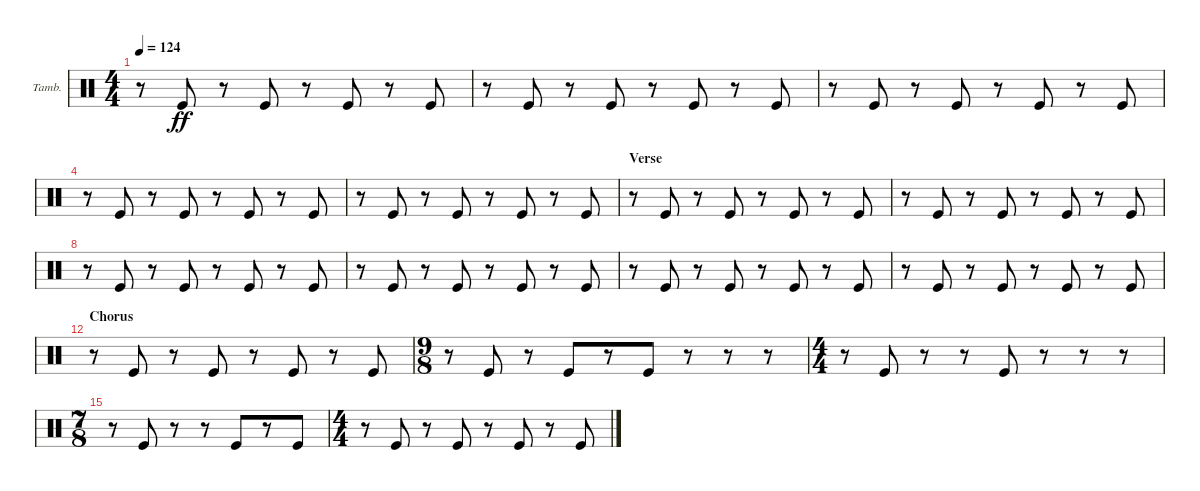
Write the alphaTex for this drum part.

\bracketExtendMode nobrackets
\firstSystemTrackNameOrientation horizontal
\otherSystemsTrackNameOrientation horizontal
\defaultBarNumberDisplay FirstOfSystem
\track ("Tambourine" "Tamb.") {instrument percussion}
\staff {score}
\articulation defaults
\ts (4 4)
\scale
0.405405
\tempo 124
\accidentals auto
\clef neutral
\ottava regular
\simile none
\scale
0.333333
\ks c
r.8{dy ff} "Kick (hit)".8 r.8 "Kick (hit)".8 r.8 "Kick (hit)".8 r.8 "Kick (hit)".8 |
\scale
0.36
\scale
0.333333 r.8 "Kick (hit)".8 r.8 "Kick (hit)".8 r.8 "Kick (hit)".8 r.8 "Kick (hit)".8 |
\scale
0.312
\scale
0.333333 r.8 "Kick (hit)".8 r.8 "Kick (hit)".8 r.8 "Kick (hit)".8 r.8 "Kick (hit)".8 |
\scale
0.328
\scale
0.333333 r.8 "Kick (hit)".8 r.8 "Kick (hit)".8 r.8 "Kick (hit)".8 r.8 "Kick (hit)".8 |
\scale
0.297297
\scale
0.333333 r.8 "Kick (hit)".8 r.8 "Kick (hit)".8 r.8 "Kick (hit)".8 r.8 "Kick (hit)".8 |
\section ("" "Verse")
\scale
0.297297
\scale
0.333333 r.8 "Kick (hit)".8 r.8 "Kick (hit)".8 r.8 "Kick (hit)".8 r.8 "Kick (hit)".8 |
\scale
0.405405
\scale
0.333333 r.8 "Kick (hit)".8 r.8 "Kick (hit)".8 r.8 "Kick (hit)".8 r.8 "Kick (hit)".8 |
\scale
0.371901
\scale
0.333333 r.8 "Kick (hit)".8 r.8 "Kick (hit)".8 r.8 "Kick (hit)".8 r.8 "Kick (hit)".8 |
\scale
0.355372
\scale
0.333333 r.8 "Kick (hit)".8 r.8 "Kick (hit)".8 r.8 "Kick (hit)".8 r.8 "Kick (hit)".8 |
\scale
0.272727
\scale
0.333333 r.8 "Kick (hit)".8 r.8 "Kick (hit)".8 r.8 "Kick (hit)".8 r.8 "Kick (hit)".8 |
\scale
0.271605
\scale
0.333333 r.8 "Kick (hit)".8 r.8 "Kick (hit)".8 r.8 "Kick (hit)".8 r.8 "Kick (hit)".8 |
\section ("" "Chorus")
\scale
0.271605
\scale
0.333333 r.8 "Kick (hit)".8 r.8 "Kick (hit)".8 r.8 "Kick (hit)".8 r.8 "Kick (hit)".8 |
\ts (9 8)
\scale
0.45679
\scale
0.333333 r.8 "Kick (hit)".8 r.8 "Kick (hit)".8 r.8 "Kick (hit)".8 r.8 r.8 r.8 |
\ts (4 4)
\scale
0.345324
\scale
0.333333 r.8 "Kick (hit)".8 r.8 r.8 "Kick (hit)".8 r.8 r.8 r.8 |
\ts (7 8)
\scale
0.309353
\scale
0.333333 r.8 "Kick (hit)".8 r.8 r.8 "Kick (hit)".8 r.8 "Kick (hit)".8 |
\ts (4 4)
\scale
0.345324
\scale
0.333333 r.8 "Kick (hit)".8 r.8 "Kick (hit)".8 r.8 "Kick (hit)".8 r.8 "Kick (hit)".8
